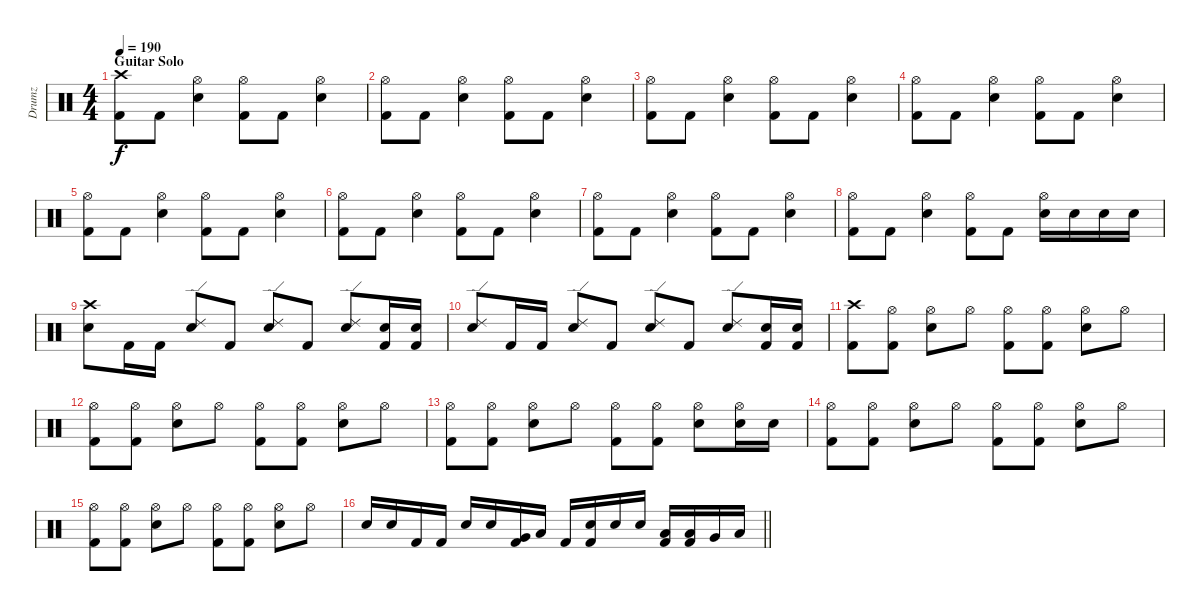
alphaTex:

\track ("Drumz" "Drumz") {instrument percussion}
\staff {score}
\articulation defaults
\ts (4 4)
\section ("" "Guitar Solo")
\tempo 190
\clef neutral
\ks c
("Crash high (hit)" "Kick (hit) 2").8{dy f} "Kick (hit) 2".8 ("Snare (hit) 2" "Hi-Hat (open)").4 ("Hi-Hat (open)" "Kick (hit) 2").8 "Kick (hit) 2".8 ("Snare (hit) 2" "Hi-Hat (open)").4 |
("Hi-Hat (open)" "Kick (hit) 2").8 "Kick (hit) 2".8 ("Snare (hit) 2" "Hi-Hat (open)").4 ("Hi-Hat (open)" "Kick (hit) 2").8 "Kick (hit) 2".8 ("Snare (hit) 2" "Hi-Hat (open)").4 |
("Hi-Hat (open)" "Kick (hit) 2").8 "Kick (hit) 2".8 ("Snare (hit) 2" "Hi-Hat (open)").4 ("Hi-Hat (open)" "Kick (hit) 2").8 "Kick (hit) 2".8 ("Snare (hit) 2" "Hi-Hat (open)").4 |
("Hi-Hat (open)" "Kick (hit) 2").8 "Kick (hit) 2".8 ("Snare (hit) 2" "Hi-Hat (open)").4 ("Hi-Hat (open)" "Kick (hit) 2").8 "Kick (hit) 2".8 ("Snare (hit) 2" "Hi-Hat (open)").4 |
("Hi-Hat (open)" "Kick (hit) 2").8 "Kick (hit) 2".8 ("Snare (hit) 2" "Hi-Hat (open)").4 ("Hi-Hat (open)" "Kick (hit) 2").8 "Kick (hit) 2".8 ("Snare (hit) 2" "Hi-Hat (open)").4 |
("Hi-Hat (open)" "Kick (hit) 2").8 "Kick (hit) 2".8 ("Snare (hit) 2" "Hi-Hat (open)").4 ("Hi-Hat (open)" "Kick (hit) 2").8 "Kick (hit) 2".8 ("Snare (hit) 2" "Hi-Hat (open)").4 |
("Hi-Hat (open)" "Kick (hit) 2").8 "Kick (hit) 2".8 ("Snare (hit) 2" "Hi-Hat (open)").4 ("Hi-Hat (open)" "Kick (hit) 2").8 "Kick (hit) 2".8 ("Snare (hit) 2" "Hi-Hat (open)").4 |
("Hi-Hat (open)" "Kick (hit) 2").8 "Kick (hit) 2".8 ("Snare (hit) 2" "Hi-Hat (open)").4 ("Hi-Hat (open)" "Kick (hit) 2").8 "Kick (hit) 2".8 ("Snare (hit) 2" "Hi-Hat (open)").16 "Snare (hit) 2".16 "Snare (hit) 2".16 "Snare (hit) 2".16 |
("Crash high (hit)" "Snare (hit) 2").8 "Kick (hit) 2".16 "Kick (hit) 2".16 ("Ride (edge) 2" "Snare (hit) 2").8 "Kick (hit) 2".8 ("Ride (edge) 2" "Snare (hit) 2").8 "Kick (hit) 2".8 ("Ride (edge) 2" "Snare (hit) 2").8 ("Snare (hit) 2" "Kick (hit) 2").16 ("Snare (hit) 2" "Kick (hit) 2").16 |
("Ride (edge) 2" "Snare (hit) 2").8 "Kick (hit) 2".16 "Kick (hit) 2".16 ("Ride (edge) 2" "Snare (hit) 2").8 "Kick (hit) 2".8 ("Ride (edge) 2" "Snare (hit) 2").8 "Kick (hit) 2".8 ("Ride (edge) 2" "Snare (hit) 2").8 ("Snare (hit) 2" "Kick (hit) 2").16 ("Snare (hit) 2" "Kick (hit) 2").16 |
("Crash high (hit)" "Kick (hit) 2").8 ("Hi-Hat (open)" "Kick (hit) 2").8 ("Snare (hit) 2" "Hi-Hat (open)").8 "Hi-Hat (open)".8 ("Hi-Hat (open)" "Kick (hit) 2").8 ("Hi-Hat (open)" "Kick (hit) 2").8 ("Snare (hit) 2" "Hi-Hat (open)").8 "Hi-Hat (open)".8 |
("Hi-Hat (open)" "Kick (hit) 2").8 ("Hi-Hat (open)" "Kick (hit) 2").8 ("Snare (hit) 2" "Hi-Hat (open)").8 "Hi-Hat (open)".8 ("Hi-Hat (open)" "Kick (hit) 2").8 ("Hi-Hat (open)" "Kick (hit) 2").8 ("Snare (hit) 2" "Hi-Hat (open)").8 "Hi-Hat (open)".8 |
("Hi-Hat (open)" "Kick (hit) 2").8 ("Hi-Hat (open)" "Kick (hit) 2").8 ("Snare (hit) 2" "Hi-Hat (open)").8 "Hi-Hat (open)".8 ("Hi-Hat (open)" "Kick (hit) 2").8 ("Hi-Hat (open)" "Kick (hit) 2").8 ("Snare (hit) 2" "Hi-Hat (open)").8 ("Snare (hit) 2" "Hi-Hat (open)").16 "Snare (hit) 2".16 |
("Hi-Hat (open)" "Kick (hit) 2").8 ("Hi-Hat (open)" "Kick (hit) 2").8 ("Snare (hit) 2" "Hi-Hat (open)").8 "Hi-Hat (open)".8 ("Hi-Hat (open)" "Kick (hit) 2").8 ("Hi-Hat (open)" "Kick (hit) 2").8 ("Snare (hit) 2" "Hi-Hat (open)").8 "Hi-Hat (open)".8 |
("Hi-Hat (open)" "Kick (hit) 2").8 ("Hi-Hat (open)" "Kick (hit) 2").8 ("Snare (hit) 2" "Hi-Hat (open)").8 "Hi-Hat (open)".8 ("Hi-Hat (open)" "Kick (hit) 2").8 ("Hi-Hat (open)" "Kick (hit) 2").8 ("Snare (hit) 2" "Hi-Hat (open)").8 "Hi-Hat (open)".8 |
\barLineRight lightlight "Snare (hit) 2".16 "Snare (hit) 2".16 "Kick (hit) 2".16 "Kick (hit) 2".16 "Snare (hit) 2".16 "Snare (hit) 2".16
("Very Low Tom (hit)" "Kick (hit) 2").16 "Low Floor Tom (hit)".16 "Kick (hit) 2".16 ("Snare (hit) 2" "Kick (hit) 2").16 "Snare (hit) 2".16 "Snare (hit) 2".16 ("Low Tom (hit)" "Kick (hit) 2").16 ("Low Tom (hit)" "Kick (hit) 2").16 "Very Low Tom (hit)".16 "Low Floor Tom (hit)".16
